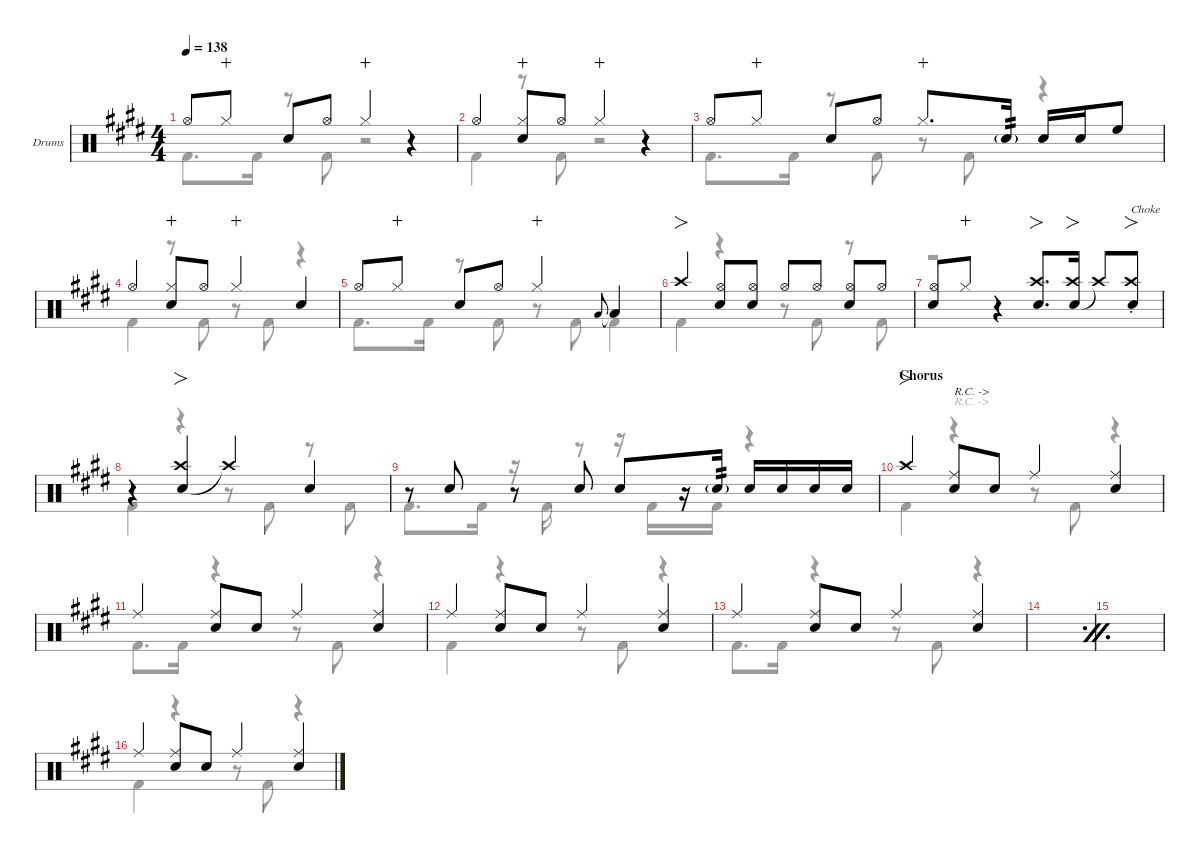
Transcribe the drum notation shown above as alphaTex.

\defaultSystemsLayout 4
\hideDynamics
\bracketExtendMode nobrackets
\firstSystemTrackNameOrientation horizontal
\track ("Drums" "Drums") {defaultSystemsLayout 4 instrument percussion}
\staff {score}
\articulation defaults
\voice
\ts (4 4)
\tempo 138
\clef neutral
\scale
0.244461
\ks c#minor "Hi-Hat (open)"{acc forcenatural}.8{dy f beam Up} "Hi-Hat (closed)"{acc forcenatural}.8{dy p wahc beam Up} "Snare (hit) 2"{acc forcenatural}.8{dy f beam Up} "Hi-Hat (open)"{acc forcenatural}.8{beam Up} "Hi-Hat (closed)"{acc forcenatural}.4{dy p wahc beam Up}
r.4{beam Up} |
\scale
0.244461 "Hi-Hat (open)"{acc forcenatural}.4{dy f beam Up} ("Snare (hit) 2"{acc forcenatural} "Hi-Hat (closed)"{acc forcenatural}).8{wahc beam Up} "Hi-Hat (open)"{acc forcenatural}.8{beam Up} "Hi-Hat (closed)"{acc forcenatural}.4{dy p wahc beam Up} r.4{beam Up} |
\scale
0.244461 "Hi-Hat (open)"{acc forcenatural}.8{dy f beam Up} "Hi-Hat (closed)"{acc forcenatural}.8{dy p wahc beam Up} "Snare (hit) 2"{acc forcenatural}.8{dy f beam Up} "Hi-Hat (open)"{acc forcenatural}.8{beam Up} "Hi-Hat (closed)"{acc forcenatural}.8{d dy p wahc beam Up} "Snare (hit) 2"{g acc forcenatural}.16{tp 2 dy mf beam Up beam split} "Snare (hit) 2"{acc forcenatural}.16{dy f beam Up} "Snare (hit) 2"{acc forcenatural}.16{dy mf beam Up} "High Floor Tom (hit)"{acc forcenatural}.8{dy f beam Up} |
\scale
0.266618 "Hi-Hat (open)"{acc forcenatural}.4{beam Up} ("Snare (hit) 2"{acc forcenatural} "Hi-Hat (closed)"{acc forcenatural}).8{wahc beam Up} "Hi-Hat (open)"{acc forcenatural}.8{beam Up} "Hi-Hat (closed)"{acc forcenatural}.4{dy p wahc beam Up} "Snare (hit) 2"{acc forcenatural}.4{dy f beam Up} |
\scale
0.244461 "Hi-Hat (open)"{acc forcenatural}.8{beam Up} "Hi-Hat (closed)"{acc forcenatural}.8{dy p wahc beam Up} "Snare (hit) 2"{acc forcenatural}.8{dy f beam Up} "Hi-Hat (open)"{acc forcenatural}.8{beam Up} "Hi-Hat (closed)"{acc forcenatural}.4{dy p wahc beam Up} "Low Tom (hit)"{acc forcenatural}.8{gr onbeat dy f beam Up} "Low Tom (hit)"{t acc forcenatural}.4{beam Up} |
\scale
0.244461 "Crash high (hit)"{acc forcenatural}.4{fo beam Up} ("Snare (hit) 2"{acc forcenatural} "Hi-Hat (open)"{acc forcenatural}).8{beam Up} ("Snare (hit) 2"{acc forcenatural} "Hi-Hat (open)"{acc forcenatural}).8{beam Up} "Hi-Hat (open)"{acc forcenatural}.8{beam Up} "Hi-Hat (open)"{acc forcenatural}.8{dy mf beam Up} ("Hi-Hat (open)"{acc forcenatural} "Snare (hit) 2"{acc forcenatural}).8{dy f beam Up} "Hi-Hat (open)"{acc forcenatural}.8{dy mf beam Up} |
\scale
0.244461 ("Hi-Hat (open)"{acc forcenatural} "Snare (hit) 2"{acc forcenatural}).8{dy f beam Up} "Hi-Hat (closed)"{acc forcenatural}.8{dy mp wahc beam Up} r.4{beam Up} ("Snare (hit) 2"{acc forcenatural} "Crash high (hit)"{acc forcenatural}).8{fo d dy f beam Up} ("Snare (hit) 2"{acc forcenatural} "Crash high (hit)"{acc forcenatural}).16{fo beam Up beam split} "Crash high (hit)"{t acc forcenatural}.8{beam Up beam merge} ("Snare (hit) 2"{st acc forcenatural} "Crash high (hit)"{st acc forcenatural}).8{fo txt "Choke" beam Up} |
\scale
0.511079 r.4{beam Up} ("Snare (hit) 2"{acc forcenatural} "Crash high (hit)"{acc forcenatural}).4{fo beam Up} "Crash high (hit)"{t acc forcenatural}.4{beam Up} "Snare (hit) 2"{acc forcenatural}.4{beam Up} |
\scale
0.488921 r.8{beam Up} "Snare (hit) 2"{acc forcenatural}.8{beam Up} r.8{beam Up} "Snare (hit) 2"{acc forcenatural}.8{beam Up} "Snare (hit) 2"{acc forcenatural}.8{beam Up} r.16{beam Up} "Snare (hit) 2"{g acc forcenatural}.16{tp 2 dy mf beam Up beam split} "Snare (hit) 2"{acc forcenatural}.16{dy f beam Up} "Snare (hit) 2"{acc forcenatural}.16{dy mf beam Up} "Snare (hit) 2"{acc forcenatural}.16{dy f beam Up} "Snare (hit) 2"{acc forcenatural}.16{dy mf beam Up} |
\section ("" "Chorus")
\scale
0.266618 "Crash high (hit)"{acc forcenatural}.4{fo dy f beam Up} ("Ride (middle)"{acc forcenatural} "Snare (hit) 2"{acc forcenatural}).8{txt "R.C. ->" beam Up} "Snare (hit) 2"{acc forcenatural}.8{beam Up} "Ride (middle)"{acc forcenatural}.4{beam Up} ("Ride (middle)"{acc forcenatural} "Snare (hit) 2"{acc forcenatural}).4{beam Up} |
\scale
0.244461 "Ride (middle)"{acc forcenatural}.4{beam Up} ("Ride (middle)"{acc forcenatural} "Snare (hit) 2"{acc forcenatural}).8{beam Up} "Snare (hit) 2"{acc forcenatural}.8{beam Up} "Ride (middle)"{acc forcenatural}.4{beam Up} ("Ride (middle)"{acc forcenatural} "Snare (hit) 2"{acc forcenatural}).4{beam Up} |
\scale
0.244461 "Ride (middle)"{acc forcenatural}.4{beam Up} ("Ride (middle)"{acc forcenatural} "Snare (hit) 2"{acc forcenatural}).8{beam Up} "Snare (hit) 2"{acc forcenatural}.8{beam Up} "Ride (middle)"{acc forcenatural}.4{beam Up} ("Ride (middle)"{acc forcenatural} "Snare (hit) 2"{acc forcenatural}).4{beam Up} |
\scale
0.244461 "Ride (middle)"{acc forcenatural}.4{beam Up} ("Ride (middle)"{acc forcenatural} "Snare (hit) 2"{acc forcenatural}).8{beam Up} "Snare (hit) 2"{acc forcenatural}.8{beam Up} "Ride (middle)"{acc forcenatural}.4{beam Up} ("Ride (middle)"{acc forcenatural} "Snare (hit) 2"{acc forcenatural}).4{beam Up} |
\simile firstofdouble
\scale
0.266618 |
\simile secondofdouble
\scale
0.244461 |
\simile none
\scale
0.244461 "Ride (middle)"{acc forcenatural}.4{beam Up} ("Ride (middle)"{acc forcenatural} "Snare (hit) 2"{acc forcenatural}).8{beam Up} "Snare (hit) 2"{acc forcenatural}.8{beam Up} "Ride (middle)"{acc forcenatural}.4{beam Up} ("Ride (middle)"{acc forcenatural} "Snare (hit) 2"{acc forcenatural}).4{beam Up}
\voice
\clef neutral
\ottava regular
\simile none
\scale
0.244461
\ks c#minor "Kick (hit) 2"{acc forcenatural}.8{d dy f beam Down} "Kick (hit) 2"{acc forcenatural}.16{beam Down beam split}
r.8{beam Down beam split} "Kick (hit) 2"{acc forcenatural}.8{beam Down} r.2{beam Down} |
\scale
0.244461 "Kick (hit) 2"{acc forcenatural}.4{beam Down} r.8{beam Down} "Kick (hit) 2"{acc forcenatural}.8{beam Down} r.2{beam Down} |
\scale
0.244461 "Kick (hit) 2"{acc forcenatural}.8{d beam Down} "Kick (hit) 2"{acc forcenatural}.16{beam Down beam split} r.8{beam Down beam split} "Kick (hit) 2"{acc forcenatural}.8{beam Down} r.8{beam Down} "Kick (hit) 2"{acc forcenatural}.8{beam Down} r.4{beam Down} |
\scale
0.266618 "Kick (hit) 2"{acc forcenatural}.4{beam Down} r.8{beam Down} "Kick (hit) 2"{acc forcenatural}.8{beam Down} r.8{beam Down} "Kick (hit) 2"{acc forcenatural}.8{beam Down} r.4{beam Down} |
\scale
0.244461 "Kick (hit) 2"{acc forcenatural}.8{d beam Down} "Kick (hit) 2"{acc forcenatural}.16{beam Down beam split} r.8{beam Down beam split} "Kick (hit) 2"{acc forcenatural}.8{beam Down} r.8{beam Down} "Kick (hit) 2"{acc forcenatural}.8{beam Down} "Kick (hit) 2"{acc forcenatural}.4{beam Down} |
\scale
0.244461 "Kick (hit) 2"{acc forcenatural}.4{beam Down} r.4{beam Down} r.8{beam Down} "Kick (hit) 2"{acc forcenatural}.8{beam Down} r.8{beam Down} "Kick (hit) 2"{acc forcenatural}.8{beam Down} |
\scale
0.244461 r.1{beam Down} |
\scale
0.511079 "Kick (hit) 2"{acc forcenatural}.4{beam Down} r.4{beam Down} r.8{beam Down} "Kick (hit) 2"{acc forcenatural}.8{beam Down} r.8{beam Down} "Kick (hit) 2"{acc forcenatural}.8{beam Down} |
\scale
0.488921 "Kick (hit) 2"{acc forcenatural}.8{d beam Down} "Kick (hit) 2"{acc forcenatural}.16{beam Down beam split} r.16{beam Down beam split} "Kick (hit) 2"{acc forcenatural}.16{beam Down} r.8{beam Down} r.16{beam Down} "Kick (hit) 2"{acc forcenatural}.16{beam Down beam merge} r.16{beam Down beam merge} "Kick (hit) 2"{acc forcenatural}.16{beam Down} r.4{beam Down} |
\scale
0.266618 "Kick (hit) 2"{acc forcenatural}.4{beam Down} r.4{txt "R.C. ->" beam Down} r.8{beam Down} "Kick (hit) 2"{acc forcenatural}.8{beam Down} r.4{beam Down} |
\scale
0.244461 "Kick (hit) 2"{acc forcenatural}.8{d beam Down} "Kick (hit) 2"{acc forcenatural}.16{beam Down} r.4{beam Down} r.8{beam Down} "Kick (hit) 2"{acc forcenatural}.8{beam Down} r.4{beam Down} |
\scale
0.244461 "Kick (hit) 2"{acc forcenatural}.4{beam Down} r.4{beam Down} r.8{beam Down} "Kick (hit) 2"{acc forcenatural}.8{beam Down} r.4{beam Down} |
\scale
0.244461 "Kick (hit) 2"{acc forcenatural}.8{d beam Down} "Kick (hit) 2"{acc forcenatural}.16{beam Down} r.4{beam Down} r.8{beam Down} "Kick (hit) 2"{acc forcenatural}.8{beam Down} r.4{beam Down} |
\simile firstofdouble
\scale
0.266618 |
\simile secondofdouble
\scale
0.244461 |
\simile none
\scale
0.244461 "Kick (hit) 2"{acc forcenatural}.4{beam Down} r.4{beam Down} r.8{beam Down} "Kick (hit) 2"{acc forcenatural}.8{beam Down} r.4{beam Down}
